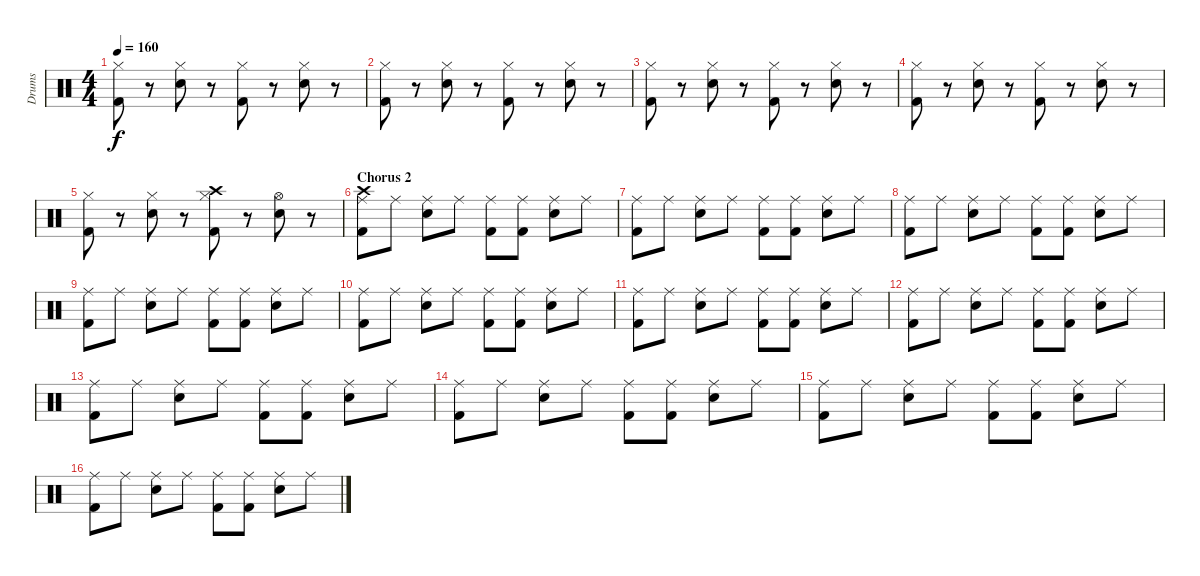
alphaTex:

\track ("Drums" "Drums") {instrument percussion}
\staff {score}
\articulation defaults
\ts (4 4)
\tempo 160
\clef neutral
\ks c
("Hi-Hat (closed)" "Kick (hit) 2").8{dy f} r.8 ("Hi-Hat (closed)" "Electric Snare (hit)").8 r.8 ("Hi-Hat (closed)" "Kick (hit) 2").8 r.8 ("Hi-Hat (closed)" "Electric Snare (hit)").8 r.8 |
("Hi-Hat (closed)" "Kick (hit) 2").8 r.8 ("Hi-Hat (closed)" "Electric Snare (hit)").8 r.8 ("Hi-Hat (closed)" "Kick (hit) 2").8 r.8 ("Hi-Hat (closed)" "Electric Snare (hit)").8 r.8 |
("Hi-Hat (closed)" "Kick (hit) 2").8 r.8 ("Hi-Hat (closed)" "Electric Snare (hit)").8 r.8 ("Hi-Hat (closed)" "Kick (hit) 2").8 r.8 ("Hi-Hat (closed)" "Electric Snare (hit)").8 r.8 |
("Hi-Hat (closed)" "Kick (hit) 2").8 r.8 ("Hi-Hat (closed)" "Electric Snare (hit)").8 r.8 ("Hi-Hat (closed)" "Kick (hit) 2").8 r.8 ("Hi-Hat (closed)" "Electric Snare (hit)").8 r.8 |
("Hi-Hat (closed)" "Kick (hit) 2").8 r.8 ("Hi-Hat (closed)" "Electric Snare (hit)").8 r.8 ("Hi-Hat (closed)" "Kick (hit) 2" "Crash high (hit)").8 r.8 ("Hi-Hat (open)" "Electric Snare (hit)").8 r.8 |
\section ("" "Chorus 2")
("Ride (middle)" "Kick (hit) 2" "Crash high (hit)").8 "Ride (middle)".8 ("Ride (middle)" "Electric Snare (hit)").8 "Ride (middle)".8 ("Ride (middle)" "Kick (hit) 2").8 ("Ride (middle)" "Kick (hit) 2").8 ("Ride (middle)" "Electric Snare (hit)").8 "Ride (middle)".8 |
("Ride (middle)" "Kick (hit) 2").8 "Ride (middle)".8 ("Ride (middle)" "Electric Snare (hit)").8 "Ride (middle)".8 ("Ride (middle)" "Kick (hit) 2").8 ("Ride (middle)" "Kick (hit) 2").8 ("Ride (middle)" "Electric Snare (hit)").8 "Ride (middle)".8 |
("Ride (middle)" "Kick (hit) 2").8 "Ride (middle)".8 ("Ride (middle)" "Electric Snare (hit)").8 "Ride (middle)".8 ("Ride (middle)" "Kick (hit) 2").8 ("Ride (middle)" "Kick (hit) 2").8 ("Ride (middle)" "Electric Snare (hit)").8 "Ride (middle)".8 |
("Ride (middle)" "Kick (hit) 2").8 "Ride (middle)".8 ("Ride (middle)" "Electric Snare (hit)").8 "Ride (middle)".8 ("Ride (middle)" "Kick (hit) 2").8 ("Ride (middle)" "Kick (hit) 2").8 ("Ride (middle)" "Electric Snare (hit)").8 "Ride (middle)".8 |
("Ride (middle)" "Kick (hit) 2").8 "Ride (middle)".8 ("Ride (middle)" "Electric Snare (hit)").8 "Ride (middle)".8 ("Ride (middle)" "Kick (hit) 2").8 ("Ride (middle)" "Kick (hit) 2").8 ("Ride (middle)" "Electric Snare (hit)").8 "Ride (middle)".8 |
("Ride (middle)" "Kick (hit) 2").8 "Ride (middle)".8 ("Ride (middle)" "Electric Snare (hit)").8 "Ride (middle)".8 ("Ride (middle)" "Kick (hit) 2").8 ("Ride (middle)" "Kick (hit) 2").8 ("Ride (middle)" "Electric Snare (hit)").8 "Ride (middle)".8 |
("Ride (middle)" "Kick (hit) 2").8 "Ride (middle)".8 ("Ride (middle)" "Electric Snare (hit)").8 "Ride (middle)".8 ("Ride (middle)" "Kick (hit) 2").8 ("Ride (middle)" "Kick (hit) 2").8 ("Ride (middle)" "Electric Snare (hit)").8 "Ride (middle)".8 |
("Ride (middle)" "Kick (hit) 2").8 "Ride (middle)".8 ("Ride (middle)" "Electric Snare (hit)").8 "Ride (middle)".8 ("Ride (middle)" "Kick (hit) 2").8 ("Ride (middle)" "Kick (hit) 2").8 ("Ride (middle)" "Electric Snare (hit)").8 "Ride (middle)".8 |
("Ride (middle)" "Kick (hit) 2").8 "Ride (middle)".8 ("Ride (middle)" "Electric Snare (hit)").8 "Ride (middle)".8 ("Ride (middle)" "Kick (hit) 2").8 ("Ride (middle)" "Kick (hit) 2").8 ("Ride (middle)" "Electric Snare (hit)").8 "Ride (middle)".8 |
("Ride (middle)" "Kick (hit) 2").8 "Ride (middle)".8 ("Ride (middle)" "Electric Snare (hit)").8 "Ride (middle)".8 ("Ride (middle)" "Kick (hit) 2").8 ("Ride (middle)" "Kick (hit) 2").8 ("Ride (middle)" "Electric Snare (hit)").8 "Ride (middle)".8 |
("Ride (middle)" "Kick (hit) 2").8 "Ride (middle)".8 ("Ride (middle)" "Electric Snare (hit)").8 "Ride (middle)".8 ("Ride (middle)" "Kick (hit) 2").8 ("Ride (middle)" "Kick (hit) 2").8 ("Ride (middle)" "Electric Snare (hit)").8 "Ride (middle)".8
